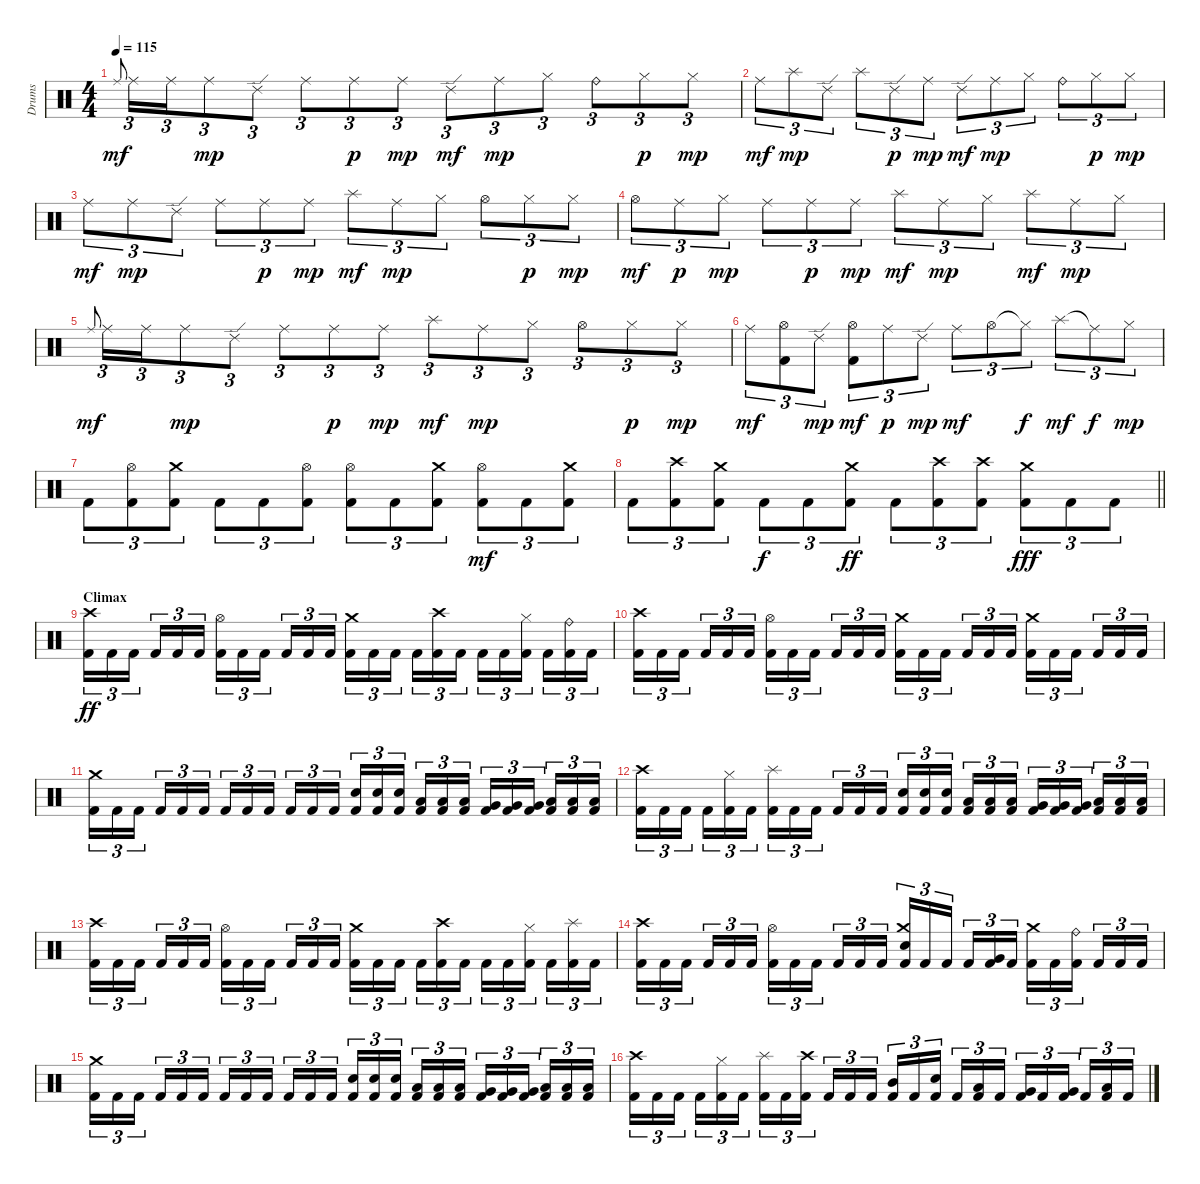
\track ("Drums" "Drums") {instrument percussion}
\staff {score}
\articulation defaults
\ts (4 4)
\tempo 115
\clef neutral
\ks c "Ride (middle)".8{gr onbeat dy mf} "Ride (middle)".16{tu (3 2)} "Ride (middle)".16{tu (3 2)} "Ride (middle)".8{tu (3 2) dy mp} "Ride (edge) 2".8{tu (3 2)} "Ride (middle)".8{tu (3 2)} "Ride (middle)".8{tu (3 2) dy p} "Ride (middle)".8{tu (3 2) dy mp} "Ride (edge) 2".8{tu (3 2) dy mf} "Ride (middle)".8{tu (3 2) dy mp} "Hi-Hat (closed)".8{tu (3 2)} "Ride (bell)".8{tu (3 2)} "Hi-Hat (closed)".8{tu (3 2) dy p} "Hi-Hat (closed)".8{tu (3 2) dy mp}
|
"Ride (middle)".8{tu (3 2) dy mf} "Splash (hit)".8{tu (3 2) dy mp} "Ride (edge) 2".8{tu (3 2)} "Splash (hit)".8{tu (3 2)} "Ride (edge) 2".8{tu (3 2) dy p} "Ride (middle)".8{tu (3 2) dy mp} "Ride (edge) 2".8{tu (3 2) dy mf} "Ride (middle)".8{tu (3 2) dy mp} "Hi-Hat (closed)".8{tu (3 2)} "Ride (bell)".8{tu (3 2)} "Hi-Hat (closed)".8{tu (3 2) dy p} "Hi-Hat (closed)".8{tu (3 2) dy mp} |
"Ride (middle)".8{tu (3 2) dy mf} "Ride (middle)".8{tu (3 2) dy mp} "Ride (edge) 2".8{tu (3 2)} "Ride (middle)".8{tu (3 2)} "Ride (middle)".8{tu (3 2) dy p} "Ride (middle)".8{tu (3 2) dy mp} "Splash (hit)".8{tu (3 2) dy mf} "Ride (middle)".8{tu (3 2) dy mp} "Hi-Hat (closed)".8{tu (3 2)} "Hi-Hat (open)".8{tu (3 2)} "Hi-Hat (closed)".8{tu (3 2) dy p} "Hi-Hat (closed)".8{tu (3 2) dy mp} |
"Hi-Hat (open)".8{tu (3 2) dy mf} "Ride (middle)".8{tu (3 2) dy p} "Hi-Hat (closed)".8{tu (3 2) dy mp} "Ride (middle)".8{tu (3 2)} "Ride (middle)".8{tu (3 2) dy p} "Ride (middle)".8{tu (3 2) dy mp} "Splash (hit)".8{tu (3 2) dy mf} "Ride (middle)".8{tu (3 2) dy mp} "Hi-Hat (closed)".8{tu (3 2)} "Splash (hit)".8{tu (3 2) dy mf} "Ride (middle)".8{tu (3 2) dy mp} "Hi-Hat (closed)".8{tu (3 2)} |
"Ride (middle)".8{gr onbeat dy mf} "Ride (middle)".16{tu (3 2)} "Ride (middle)".16{tu (3 2)} "Ride (middle)".8{tu (3 2) dy mp} "Ride (edge) 2".8{tu (3 2)} "Ride (middle)".8{tu (3 2)} "Ride (middle)".8{tu (3 2) dy p} "Ride (middle)".8{tu (3 2) dy mp} "Splash (hit)".8{tu (3 2) dy mf} "Ride (middle)".8{tu (3 2) dy mp} "Hi-Hat (closed)".8{tu (3 2)} "Hi-Hat (open)".8{tu (3 2)} "Hi-Hat (closed)".8{tu (3 2) dy p} "Hi-Hat (closed)".8{tu (3 2) dy mp} |
"Ride (middle)".8{tu (3 2) dy mf} ("Hi-Hat (open)" "Kick (hit) 2").8{tu (3 2)} "Ride (edge) 2".8{tu (3 2) dy mp} ("Hi-Hat (open)" "Kick (hit) 2").8{tu (3 2) dy mf} "Ride (middle)".8{tu (3 2) dy p} "Ride (edge) 2".8{tu (3 2) dy mp} "Ride (middle)".8{tu (3 2) dy mf} "Hi-Hat (open)".8{tu (3 2)} "Hi-Hat (closed)"{t}.8{tu (3 2) dy f} "Splash (hit)".8{tu (3 2) dy mf} "Ride (middle)"{t}.8{tu (3 2) dy f} "Hi-Hat (closed)".8{tu (3 2) dy mp} |
"Kick (hit) 2".8{tu (3 2)} ("Hi-Hat (open)" "Kick (hit) 2").8{tu (3 2)} ("Crash medium (hit)" "Kick (hit) 2").8{tu (3 2)} "Kick (hit) 2".8{tu (3 2)} "Kick (hit) 2".8{tu (3 2)} ("Hi-Hat (open)" "Kick (hit) 2").8{tu (3 2)} ("Hi-Hat (open)" "Kick (hit) 2").8{tu (3 2)} "Kick (hit) 2".8{tu (3 2)} ("Crash medium (hit)" "Kick (hit) 2").8{tu (3 2)} ("Hi-Hat (open)" "Kick (hit) 2").8{tu (3 2) dy mf} "Kick (hit) 2".8{tu (3 2)} ("Crash medium (hit)" "Kick (hit) 2").8{tu (3 2)} |
\barLineRight lightlight "Kick (hit) 2".8{tu (3 2)}
("Crash high (hit)" "Kick (hit) 2").8{tu (3 2)} ("Crash medium (hit)" "Kick (hit) 2").8{tu (3 2)} "Kick (hit) 2".8{tu (3 2) dy f} "Kick (hit) 2".8{tu (3 2)} ("Crash medium (hit)" "Kick (hit) 2").8{tu (3 2) dy ff} "Kick (hit) 2".8{tu (3 2)} ("Crash high (hit)" "Kick (hit) 2").8{tu (3 2)} ("Crash high (hit)" "Kick (hit) 2").8{tu (3 2)} ("Crash medium (hit)" "Kick (hit) 2").8{tu (3 2) dy fff} "Kick (hit) 2".8{tu (3 2)} "Kick (hit) 2".8{tu (3 2)} |
\section ("" "Climax")
("Crash high (hit)" "Kick (hit) 2").16{tu (3 2) dy ff} "Kick (hit) 2".16{tu (3 2)} "Kick (hit) 2".16{tu (3 2) beam splitsecondary} "Kick (hit) 2".16{tu (3 2)} "Kick (hit) 2".16{tu (3 2)} "Kick (hit) 2".16{tu (3 2)} ("Hi-Hat (open)" "Kick (hit) 2").16{tu (3 2)} "Kick (hit) 2".16{tu (3 2)} "Kick (hit) 2".16{tu (3 2) beam splitsecondary} "Kick (hit) 2".16{tu (3 2)} "Kick (hit) 2".16{tu (3 2)} "Kick (hit) 2".16{tu (3 2)} ("Crash medium (hit)" "Kick (hit) 2").16{tu (3 2)} "Kick (hit) 2".16{tu (3 2)} "Kick (hit) 2".16{tu (3 2) beam splitsecondary} "Kick (hit) 2".16{tu (3 2)} ("Crash high (hit)" "Kick (hit) 2").16{tu (3 2)} "Kick (hit) 2".16{tu (3 2)} "Kick (hit) 2".16{tu (3 2)} "Kick (hit) 2".16{tu (3 2)} ("Hi-Hat (closed)" "Kick (hit) 2").16{tu (3 2) beam splitsecondary} "Kick (hit) 2".16{tu (3 2)} ("Ride (bell)" "Kick (hit) 2").16{tu (3 2)} "Kick (hit) 2".16{tu (3 2)} |
("Crash high (hit)" "Kick (hit) 2").16{tu (3 2)} "Kick (hit) 2".16{tu (3 2)} "Kick (hit) 2".16{tu (3 2) beam splitsecondary} "Kick (hit) 2".16{tu (3 2)} "Kick (hit) 2".16{tu (3 2)} "Kick (hit) 2".16{tu (3 2)} ("Hi-Hat (open)" "Kick (hit) 2").16{tu (3 2)} "Kick (hit) 2".16{tu (3 2)} "Kick (hit) 2".16{tu (3 2) beam splitsecondary} "Kick (hit) 2".16{tu (3 2)} "Kick (hit) 2".16{tu (3 2)} "Kick (hit) 2".16{tu (3 2)} ("Crash medium (hit)" "Kick (hit) 2").16{tu (3 2)} "Kick (hit) 2".16{tu (3 2)} "Kick (hit) 2".16{tu (3 2) beam splitsecondary} "Kick (hit) 2".16{tu (3 2)} "Kick (hit) 2".16{tu (3 2)} "Kick (hit) 2".16{tu (3 2)} ("Crash medium (hit)" "Kick (hit) 2").16{tu (3 2)} "Kick (hit) 2".16{tu (3 2)} "Kick (hit) 2".16{tu (3 2) beam splitsecondary} "Kick (hit) 2".16{tu (3 2)} "Kick (hit) 2".16{tu (3 2)} "Kick (hit) 2".16{tu (3 2)} |
("Crash medium (hit)" "Kick (hit) 2").16{tu (3 2)} "Kick (hit) 2".16{tu (3 2)} "Kick (hit) 2".16{tu (3 2) beam splitsecondary} "Kick (hit) 2".16{tu (3 2)} "Kick (hit) 2".16{tu (3 2)} "Kick (hit) 2".16{tu (3 2)} "Kick (hit) 2".16{tu (3 2)} "Kick (hit) 2".16{tu (3 2)} "Kick (hit) 2".16{tu (3 2) beam splitsecondary} "Kick (hit) 2".16{tu (3 2)} "Kick (hit) 2".16{tu (3 2)} "Kick (hit) 2".16{tu (3 2)} ("Snare (hit) 2" "Kick (hit) 2").16{tu (3 2)} ("Snare (hit) 2" "Kick (hit) 2").16{tu (3 2)} ("Snare (hit) 2" "Kick (hit) 2").16{tu (3 2) beam splitsecondary} ("Low Tom (hit)" "Kick (hit) 2").16{tu (3 2)} ("Low Tom (hit)" "Kick (hit) 2").16{tu (3 2)} ("Low Tom (hit)" "Kick (hit) 2").16{tu (3 2)} ("Very Low Tom (hit)" "Kick (hit) 2").16{tu (3 2)} ("Very Low Tom (hit)" "Kick (hit) 2").16{tu (3 2)} ("Very Low Tom (hit)" "Kick (hit) 2").16{tu (3 2) beam splitsecondary} ("Low Floor Tom (hit)" "Kick (hit) 2").16{tu (3 2)} ("Low Floor Tom (hit)" "Kick (hit) 2").16{tu (3 2)} ("Low Floor Tom (hit)" "Kick (hit) 2").16{tu (3 2)} |
("Crash high (hit)" "Kick (hit) 2").16{tu (3 2)} "Kick (hit) 2".16{tu (3 2)} "Kick (hit) 2".16{tu (3 2) beam splitsecondary} "Kick (hit) 2".16{tu (3 2)} ("Hi-Hat (closed)" "Kick (hit) 2").16{tu (3 2)} "Kick (hit) 2".16{tu (3 2)} ("Splash (hit)" "Kick (hit) 2").16{tu (3 2)} "Kick (hit) 2".16{tu (3 2)} "Kick (hit) 2".16{tu (3 2) beam splitsecondary} "Kick (hit) 2".16{tu (3 2)} "Kick (hit) 2".16{tu (3 2)} "Kick (hit) 2".16{tu (3 2)} ("Snare (hit) 2" "Kick (hit) 2").16{tu (3 2)} ("Snare (hit) 2" "Kick (hit) 2").16{tu (3 2)} ("Snare (hit) 2" "Kick (hit) 2").16{tu (3 2) beam splitsecondary} ("Low Tom (hit)" "Kick (hit) 2").16{tu (3 2)} ("Low Tom (hit)" "Kick (hit) 2").16{tu (3 2)} ("Low Tom (hit)" "Kick (hit) 2").16{tu (3 2)} ("Very Low Tom (hit)" "Kick (hit) 2").16{tu (3 2)} ("Very Low Tom (hit)" "Kick (hit) 2").16{tu (3 2)} ("Very Low Tom (hit)" "Kick (hit) 2").16{tu (3 2) beam splitsecondary} ("Low Floor Tom (hit)" "Kick (hit) 2").16{tu (3 2)} ("Low Floor Tom (hit)" "Kick (hit) 2").16{tu (3 2)} ("Low Floor Tom (hit)" "Kick (hit) 2").16{tu (3 2)} |
("Crash high (hit)" "Kick (hit) 2").16{tu (3 2)} "Kick (hit) 2".16{tu (3 2)} "Kick (hit) 2".16{tu (3 2) beam splitsecondary} "Kick (hit) 2".16{tu (3 2)} "Kick (hit) 2".16{tu (3 2)} "Kick (hit) 2".16{tu (3 2)} ("Hi-Hat (open)" "Kick (hit) 2").16{tu (3 2)} "Kick (hit) 2".16{tu (3 2)} "Kick (hit) 2".16{tu (3 2) beam splitsecondary} "Kick (hit) 2".16{tu (3 2)} "Kick (hit) 2".16{tu (3 2)} "Kick (hit) 2".16{tu (3 2)} ("Crash medium (hit)" "Kick (hit) 2").16{tu (3 2)} "Kick (hit) 2".16{tu (3 2)} "Kick (hit) 2".16{tu (3 2) beam splitsecondary} "Kick (hit) 2".16{tu (3 2)} ("Crash high (hit)" "Kick (hit) 2").16{tu (3 2)} "Kick (hit) 2".16{tu (3 2)} "Kick (hit) 2".16{tu (3 2)} "Kick (hit) 2".16{tu (3 2)} ("Hi-Hat (closed)" "Kick (hit) 2").16{tu (3 2) beam splitsecondary} "Kick (hit) 2".16{tu (3 2)} ("Splash (hit)" "Kick (hit) 2").16{tu (3 2)} "Kick (hit) 2".16{tu (3 2)} |
("Crash high (hit)" "Kick (hit) 2").16{tu (3 2)} "Kick (hit) 2".16{tu (3 2)} "Kick (hit) 2".16{tu (3 2) beam splitsecondary} "Kick (hit) 2".16{tu (3 2)} "Kick (hit) 2".16{tu (3 2)} "Kick (hit) 2".16{tu (3 2)} ("Hi-Hat (open)" "Kick (hit) 2").16{tu (3 2)} "Kick (hit) 2".16{tu (3 2)} "Kick (hit) 2".16{tu (3 2) beam splitsecondary} "Kick (hit) 2".16{tu (3 2)} "Kick (hit) 2".16{tu (3 2)} "Kick (hit) 2".16{tu (3 2)} ("Crash medium (hit)" "Snare (hit) 2" "Kick (hit) 2").16{tu (3 2)} "Kick (hit) 2".16{tu (3 2)} "Kick (hit) 2".16{tu (3 2) beam splitsecondary} "Kick (hit) 2".16{tu (3 2)} ("Very Low Tom (hit)" "Kick (hit) 2").16{tu (3 2)} "Kick (hit) 2".16{tu (3 2)} ("Crash medium (hit)" "Kick (hit) 2").16{tu (3 2)} "Kick (hit) 2".16{tu (3 2)} ("Ride (bell)" "Kick (hit) 2").16{tu (3 2) beam splitsecondary} "Kick (hit) 2".16{tu (3 2)} "Kick (hit) 2".16{tu (3 2)} "Kick (hit) 2".16{tu (3 2)} |
("Crash medium (hit)" "Kick (hit) 2").16{tu (3 2)} "Kick (hit) 2".16{tu (3 2)} "Kick (hit) 2".16{tu (3 2) beam splitsecondary} "Kick (hit) 2".16{tu (3 2)} "Kick (hit) 2".16{tu (3 2)} "Kick (hit) 2".16{tu (3 2)} "Kick (hit) 2".16{tu (3 2)} "Kick (hit) 2".16{tu (3 2)} "Kick (hit) 2".16{tu (3 2) beam splitsecondary} "Kick (hit) 2".16{tu (3 2)} "Kick (hit) 2".16{tu (3 2)} "Kick (hit) 2".16{tu (3 2)} ("Snare (hit) 2" "Kick (hit) 2").16{tu (3 2)} ("Snare (hit) 2" "Kick (hit) 2").16{tu (3 2)} ("Snare (hit) 2" "Kick (hit) 2").16{tu (3 2) beam splitsecondary} ("Low Tom (hit)" "Kick (hit) 2").16{tu (3 2)} ("Low Tom (hit)" "Kick (hit) 2").16{tu (3 2)} ("Low Tom (hit)" "Kick (hit) 2").16{tu (3 2)} ("Very Low Tom (hit)" "Kick (hit) 2").16{tu (3 2)} ("Very Low Tom (hit)" "Kick (hit) 2").16{tu (3 2)} ("Very Low Tom (hit)" "Kick (hit) 2").16{tu (3 2) beam splitsecondary} ("Low Floor Tom (hit)" "Kick (hit) 2").16{tu (3 2)} ("Low Floor Tom (hit)" "Kick (hit) 2").16{tu (3 2)} ("Low Floor Tom (hit)" "Kick (hit) 2").16{tu (3 2)} |
("Crash high (hit)" "Kick (hit) 2").16{tu (3 2)} "Kick (hit) 2".16{tu (3 2)} "Kick (hit) 2".16{tu (3 2) beam splitsecondary} "Kick (hit) 2".16{tu (3 2)} ("Hi-Hat (closed)" "Kick (hit) 2").16{tu (3 2)} "Kick (hit) 2".16{tu (3 2)} ("Splash (hit)" "Kick (hit) 2").16{tu (3 2)} "Kick (hit) 2".16{tu (3 2)} ("Crash high (hit)" "Kick (hit) 2").16{tu (3 2) beam splitsecondary} "Kick (hit) 2".16{tu (3 2)} "Kick (hit) 2".16{tu (3 2)} "Kick (hit) 2".16{tu (3 2)} ("Mid Tom (hit)" "Kick (hit) 2").16{tu (3 2)} "Kick (hit) 2".16{tu (3 2)} ("Snare (hit) 2" "Kick (hit) 2").16{tu (3 2) beam splitsecondary} "Kick (hit) 2".16{tu (3 2)} ("Low Tom (hit)" "Kick (hit) 2").16{tu (3 2)} "Kick (hit) 2".16{tu (3 2)} ("Very Low Tom (hit)" "Kick (hit) 2").16{tu (3 2)} "Kick (hit) 2".16{tu (3 2)} ("Very Low Tom (hit)" "Kick (hit) 2").16{tu (3 2) beam splitsecondary} "Kick (hit) 2".16{tu (3 2)} ("Low Floor Tom (hit)" "Kick (hit) 2").16{tu (3 2)} "Kick (hit) 2".16{tu (3 2)}
